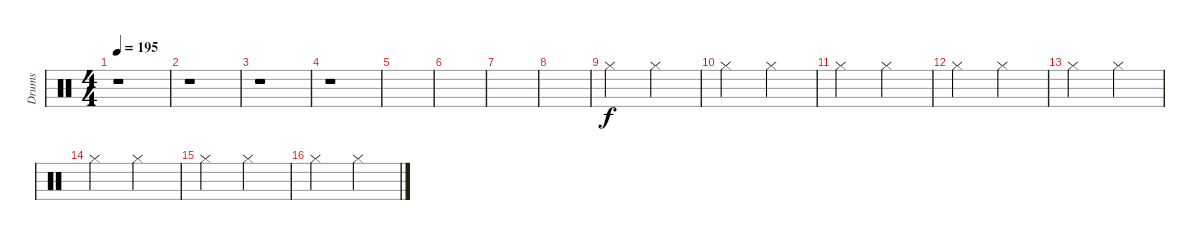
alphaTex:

\track ("Drums" "Drums") {instrument percussion}
\staff {score}
\articulation defaults
\ts (4 4)
\tempo 195
\clef neutral
\ks c
r.1{dy f} |
r.1 |
r.1 |
r.1 |
|
|
|
|
"Hi-Hat (closed)".2 "Hi-Hat (closed)".2 |
"Hi-Hat (closed)".2 "Hi-Hat (closed)".2 |
"Hi-Hat (closed)".2 "Hi-Hat (closed)".2 |
"Hi-Hat (closed)".2 "Hi-Hat (closed)".2 |
"Hi-Hat (closed)".2 "Hi-Hat (closed)".2 |
"Hi-Hat (closed)".2 "Hi-Hat (closed)".2 |
"Hi-Hat (closed)".2 "Hi-Hat (closed)".2 |
"Hi-Hat (closed)".2 "Hi-Hat (closed)".2
